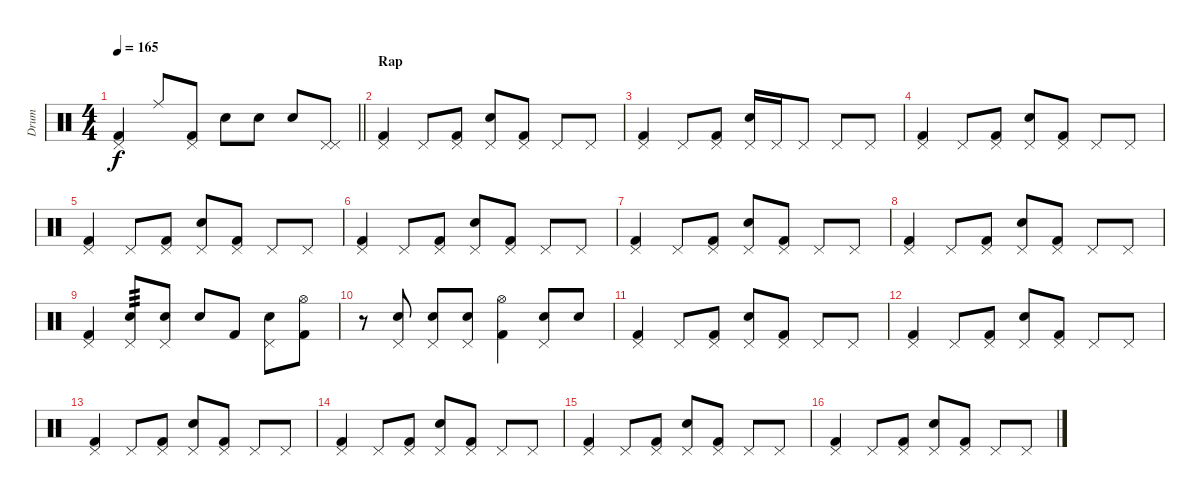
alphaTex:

\track ("Drum" "Drum") {instrument percussion}
\staff {score}
\articulation defaults
\ts (4 4)
\tempo 165
\clef neutral
\barLineRight lightlight
\ks c
("Kick (hit) 2" "Pedal Hi-Hat (hit)").4{dy f} "Ride (middle)".8 ("Kick (hit) 2" "Pedal Hi-Hat (hit)").8 "Electric Snare (hit)".8 "Electric Snare (hit)".8 "Electric Snare (hit)".8 ("Pedal Hi-Hat (hit)" "Pedal Hi-Hat (hit)").8 |
\section ("" "Rap")
("Kick (hit) 2" "Pedal Hi-Hat (hit)").4 "Pedal Hi-Hat (hit)".8 ("Kick (hit) 2" "Pedal Hi-Hat (hit)").8 ("Electric Snare (hit)" "Pedal Hi-Hat (hit)").8 ("Kick (hit) 2" "Pedal Hi-Hat (hit)").8 "Pedal Hi-Hat (hit)".8 "Pedal Hi-Hat (hit)".8 |
("Kick (hit) 2" "Pedal Hi-Hat (hit)").4 "Pedal Hi-Hat (hit)".8 ("Kick (hit) 2" "Pedal Hi-Hat (hit)").8 ("Electric Snare (hit)" "Pedal Hi-Hat (hit)").16 "Pedal Hi-Hat (hit)".16 "Pedal Hi-Hat (hit)".8 "Pedal Hi-Hat (hit)".8 "Pedal Hi-Hat (hit)".8 |
("Kick (hit) 2" "Pedal Hi-Hat (hit)").4 "Pedal Hi-Hat (hit)".8 ("Kick (hit) 2" "Pedal Hi-Hat (hit)").8 ("Electric Snare (hit)" "Pedal Hi-Hat (hit)").8 ("Kick (hit) 2" "Pedal Hi-Hat (hit)").8 "Pedal Hi-Hat (hit)".8 "Pedal Hi-Hat (hit)".8 |
("Kick (hit) 2" "Pedal Hi-Hat (hit)").4 "Pedal Hi-Hat (hit)".8 ("Kick (hit) 2" "Pedal Hi-Hat (hit)").8 ("Electric Snare (hit)" "Pedal Hi-Hat (hit)").8 ("Kick (hit) 2" "Pedal Hi-Hat (hit)").8 "Pedal Hi-Hat (hit)".8 "Pedal Hi-Hat (hit)".8 |
("Kick (hit) 2" "Pedal Hi-Hat (hit)").4 "Pedal Hi-Hat (hit)".8 ("Kick (hit) 2" "Pedal Hi-Hat (hit)").8 ("Electric Snare (hit)" "Pedal Hi-Hat (hit)").8 ("Kick (hit) 2" "Pedal Hi-Hat (hit)").8 "Pedal Hi-Hat (hit)".8 "Pedal Hi-Hat (hit)".8 |
("Kick (hit) 2" "Pedal Hi-Hat (hit)").4 "Pedal Hi-Hat (hit)".8 ("Kick (hit) 2" "Pedal Hi-Hat (hit)").8 ("Electric Snare (hit)" "Pedal Hi-Hat (hit)").8 ("Kick (hit) 2" "Pedal Hi-Hat (hit)").8 "Pedal Hi-Hat (hit)".8 "Pedal Hi-Hat (hit)".8 |
("Kick (hit) 2" "Pedal Hi-Hat (hit)").4 "Pedal Hi-Hat (hit)".8 ("Kick (hit) 2" "Pedal Hi-Hat (hit)").8 ("Electric Snare (hit)" "Pedal Hi-Hat (hit)").8 ("Kick (hit) 2" "Pedal Hi-Hat (hit)").8 "Pedal Hi-Hat (hit)".8 "Pedal Hi-Hat (hit)".8 |
("Kick (hit) 2" "Pedal Hi-Hat (hit)").4 ("Electric Snare (hit)" "Pedal Hi-Hat (hit)").8{tp 3} ("Electric Snare (hit)" "Pedal Hi-Hat (hit)").8 "Electric Snare (hit)".8 "Kick (hit) 2".8 ("Electric Snare (hit)" "Pedal Hi-Hat (hit)").8 ("Kick (hit) 2" "Hi-Hat (open)").8 |
r.8 ("Electric Snare (hit)" "Pedal Hi-Hat (hit)").8 ("Electric Snare (hit)" "Pedal Hi-Hat (hit)").8 ("Electric Snare (hit)" "Pedal Hi-Hat (hit)").8 ("Kick (hit) 2" "Hi-Hat (open)").4 ("Electric Snare (hit)" "Pedal Hi-Hat (hit)").8 "Electric Snare (hit)".8 |
("Kick (hit) 2" "Pedal Hi-Hat (hit)").4 "Pedal Hi-Hat (hit)".8 ("Kick (hit) 2" "Pedal Hi-Hat (hit)").8 ("Electric Snare (hit)" "Pedal Hi-Hat (hit)").8 ("Kick (hit) 2" "Pedal Hi-Hat (hit)").8 "Pedal Hi-Hat (hit)".8 "Pedal Hi-Hat (hit)".8 |
("Kick (hit) 2" "Pedal Hi-Hat (hit)").4 "Pedal Hi-Hat (hit)".8 ("Kick (hit) 2" "Pedal Hi-Hat (hit)").8 ("Electric Snare (hit)" "Pedal Hi-Hat (hit)").8 ("Kick (hit) 2" "Pedal Hi-Hat (hit)").8 "Pedal Hi-Hat (hit)".8 "Pedal Hi-Hat (hit)".8 |
("Kick (hit) 2" "Pedal Hi-Hat (hit)").4 "Pedal Hi-Hat (hit)".8 ("Kick (hit) 2" "Pedal Hi-Hat (hit)").8 ("Electric Snare (hit)" "Pedal Hi-Hat (hit)").8 ("Kick (hit) 2" "Pedal Hi-Hat (hit)").8 "Pedal Hi-Hat (hit)".8 "Pedal Hi-Hat (hit)".8 |
("Kick (hit) 2" "Pedal Hi-Hat (hit)").4 "Pedal Hi-Hat (hit)".8 ("Kick (hit) 2" "Pedal Hi-Hat (hit)").8 ("Electric Snare (hit)" "Pedal Hi-Hat (hit)").8 ("Kick (hit) 2" "Pedal Hi-Hat (hit)").8 "Pedal Hi-Hat (hit)".8 "Pedal Hi-Hat (hit)".8 |
("Kick (hit) 2" "Pedal Hi-Hat (hit)").4 "Pedal Hi-Hat (hit)".8 ("Kick (hit) 2" "Pedal Hi-Hat (hit)").8 ("Electric Snare (hit)" "Pedal Hi-Hat (hit)").8 ("Kick (hit) 2" "Pedal Hi-Hat (hit)").8 "Pedal Hi-Hat (hit)".8 "Pedal Hi-Hat (hit)".8 |
("Kick (hit) 2" "Pedal Hi-Hat (hit)").4 "Pedal Hi-Hat (hit)".8 ("Kick (hit) 2" "Pedal Hi-Hat (hit)").8 ("Electric Snare (hit)" "Pedal Hi-Hat (hit)").8 ("Kick (hit) 2" "Pedal Hi-Hat (hit)").8 "Pedal Hi-Hat (hit)".8 "Pedal Hi-Hat (hit)".8
